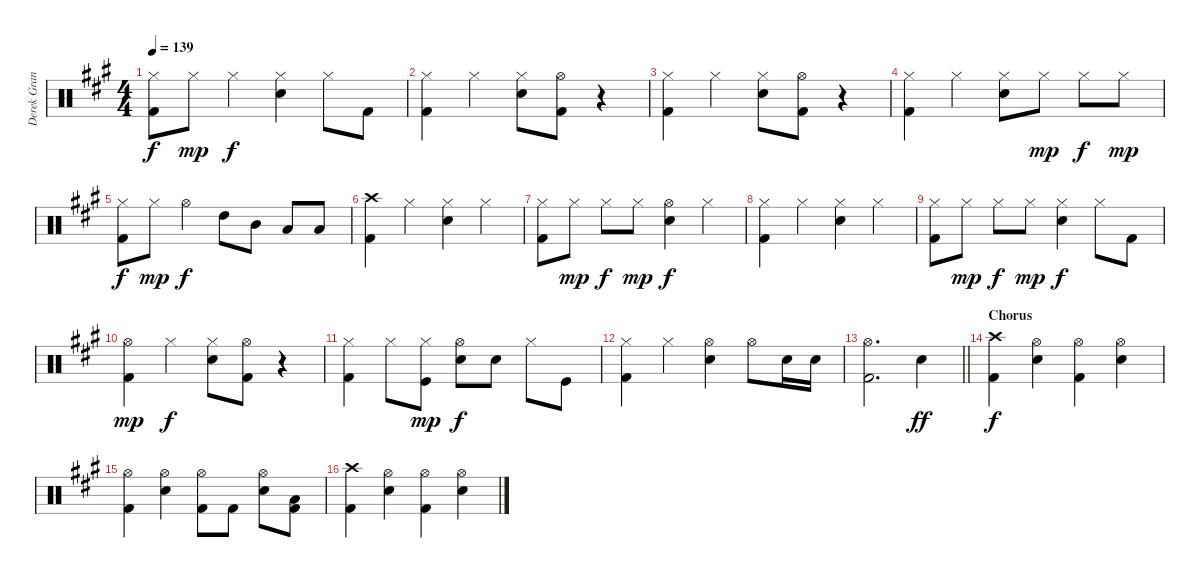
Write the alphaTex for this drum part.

\track ("Derek Grant - Drums" "Derek Gran") {instrument percussion}
\staff {score}
\articulation defaults
\ts (4 4)
\tempo 139
\clef neutral
\ks a
("Kick (hit) 2" "Hi-Hat (closed)").8{dy f} "Hi-Hat (closed)".8{dy mp} "Hi-Hat (closed)".4{dy f} ("Hi-Hat (closed)" "Snare (hit) 2").4 "Hi-Hat (closed)".8 "Kick (hit) 2".8 |
("Kick (hit) 2" "Hi-Hat (closed)").4 "Hi-Hat (closed)".4 ("Hi-Hat (closed)" "Snare (hit) 2").8 ("Hi-Hat (open)" "Kick (hit) 2").8 r.4 |
("Kick (hit) 2" "Hi-Hat (closed)").4 "Hi-Hat (closed)".4 ("Hi-Hat (closed)" "Snare (hit) 2").8 ("Hi-Hat (open)" "Kick (hit) 2").8 r.4 |
("Kick (hit) 2" "Hi-Hat (closed)").4 "Hi-Hat (closed)".4 ("Hi-Hat (closed)" "Snare (hit) 2").8 "Hi-Hat (closed)".8{dy mp} "Hi-Hat (closed)".8{dy f} "Hi-Hat (closed)".8{dy mp} |
("Kick (hit) 2" "Hi-Hat (closed)").8{dy f} "Hi-Hat (closed)".8{dy mp} "Hi-Hat (open)".4{dy f} "High Tom (hit)".8 "Mid Tom (hit)".8 "Low Tom (hit)".8 "Low Floor Tom (hit)".8 |
("Kick (hit) 2" "Crash high (hit)").4 "Hi-Hat (closed)".4 ("Hi-Hat (closed)" "Snare (hit) 2").4 "Hi-Hat (closed)".4 |
("Kick (hit) 2" "Hi-Hat (closed)").8 "Hi-Hat (closed)".8{dy mp} "Hi-Hat (closed)".8{dy f} "Hi-Hat (closed)".8{dy mp} ("Hi-Hat (open)" "Snare (hit) 2").4{dy f} "Hi-Hat (closed)".4 |
("Kick (hit) 2" "Hi-Hat (closed)").4 "Hi-Hat (closed)".4 ("Hi-Hat (closed)" "Snare (hit) 2").4 "Hi-Hat (closed)".4 |
("Kick (hit) 2" "Hi-Hat (closed)").8 "Hi-Hat (closed)".8{dy mp} "Hi-Hat (closed)".8{dy f} "Hi-Hat (closed)".8{dy mp} ("Hi-Hat (closed)" "Snare (hit) 2").4{dy f} "Hi-Hat (closed)".8 "Kick (hit) 2".8 |
("Kick (hit) 2" "Hi-Hat (open)").4{dy mp} "Hi-Hat (closed)".4{dy f} ("Hi-Hat (closed)" "Snare (hit) 2").8 ("Hi-Hat (open)" "Kick (hit) 2").8 r.4 |
("Kick (hit) 2" "Hi-Hat (closed)").4 "Hi-Hat (closed)".8 ("Hi-Hat (closed)" "Kick (hit)").8{dy mp} ("Hi-Hat (open)" "Snare (hit) 2").8{dy f} "Snare (hit) 2".8 "Hi-Hat (closed)".8 "Kick (hit)".8 |
("Kick (hit) 2" "Hi-Hat (closed)").4 "Hi-Hat (closed)".4 ("Hi-Hat (open)" "Snare (hit) 2").4 "Hi-Hat (open)".8 "Snare (hit) 2".16 "Snare (hit) 2".16 |
\barLineRight lightlight
("Hi-Hat (open)" "Kick (hit) 2").2{d} "Snare (hit) 2".4{dy ff} |
\section ("" "Chorus")
("Crash high (hit)" "Kick (hit) 2").4{dy f} ("Snare (hit) 2" "Hi-Hat (open)").4 ("Kick (hit) 2" "Hi-Hat (open)").4 ("Hi-Hat (open)" "Snare (hit) 2").4 |
("Kick (hit) 2" "Hi-Hat (open)").4 ("Snare (hit) 2" "Hi-Hat (open)").4 ("Kick (hit) 2" "Hi-Hat (open)").8 "Kick (hit) 2".8 ("Hi-Hat (open)" "Snare (hit) 2").8 ("Low Tom (hit)" "Kick (hit) 2").8 |
("Crash high (hit)" "Kick (hit) 2").4 ("Snare (hit) 2" "Hi-Hat (open)").4 ("Kick (hit) 2" "Hi-Hat (open)").4 ("Hi-Hat (open)" "Snare (hit) 2").4
